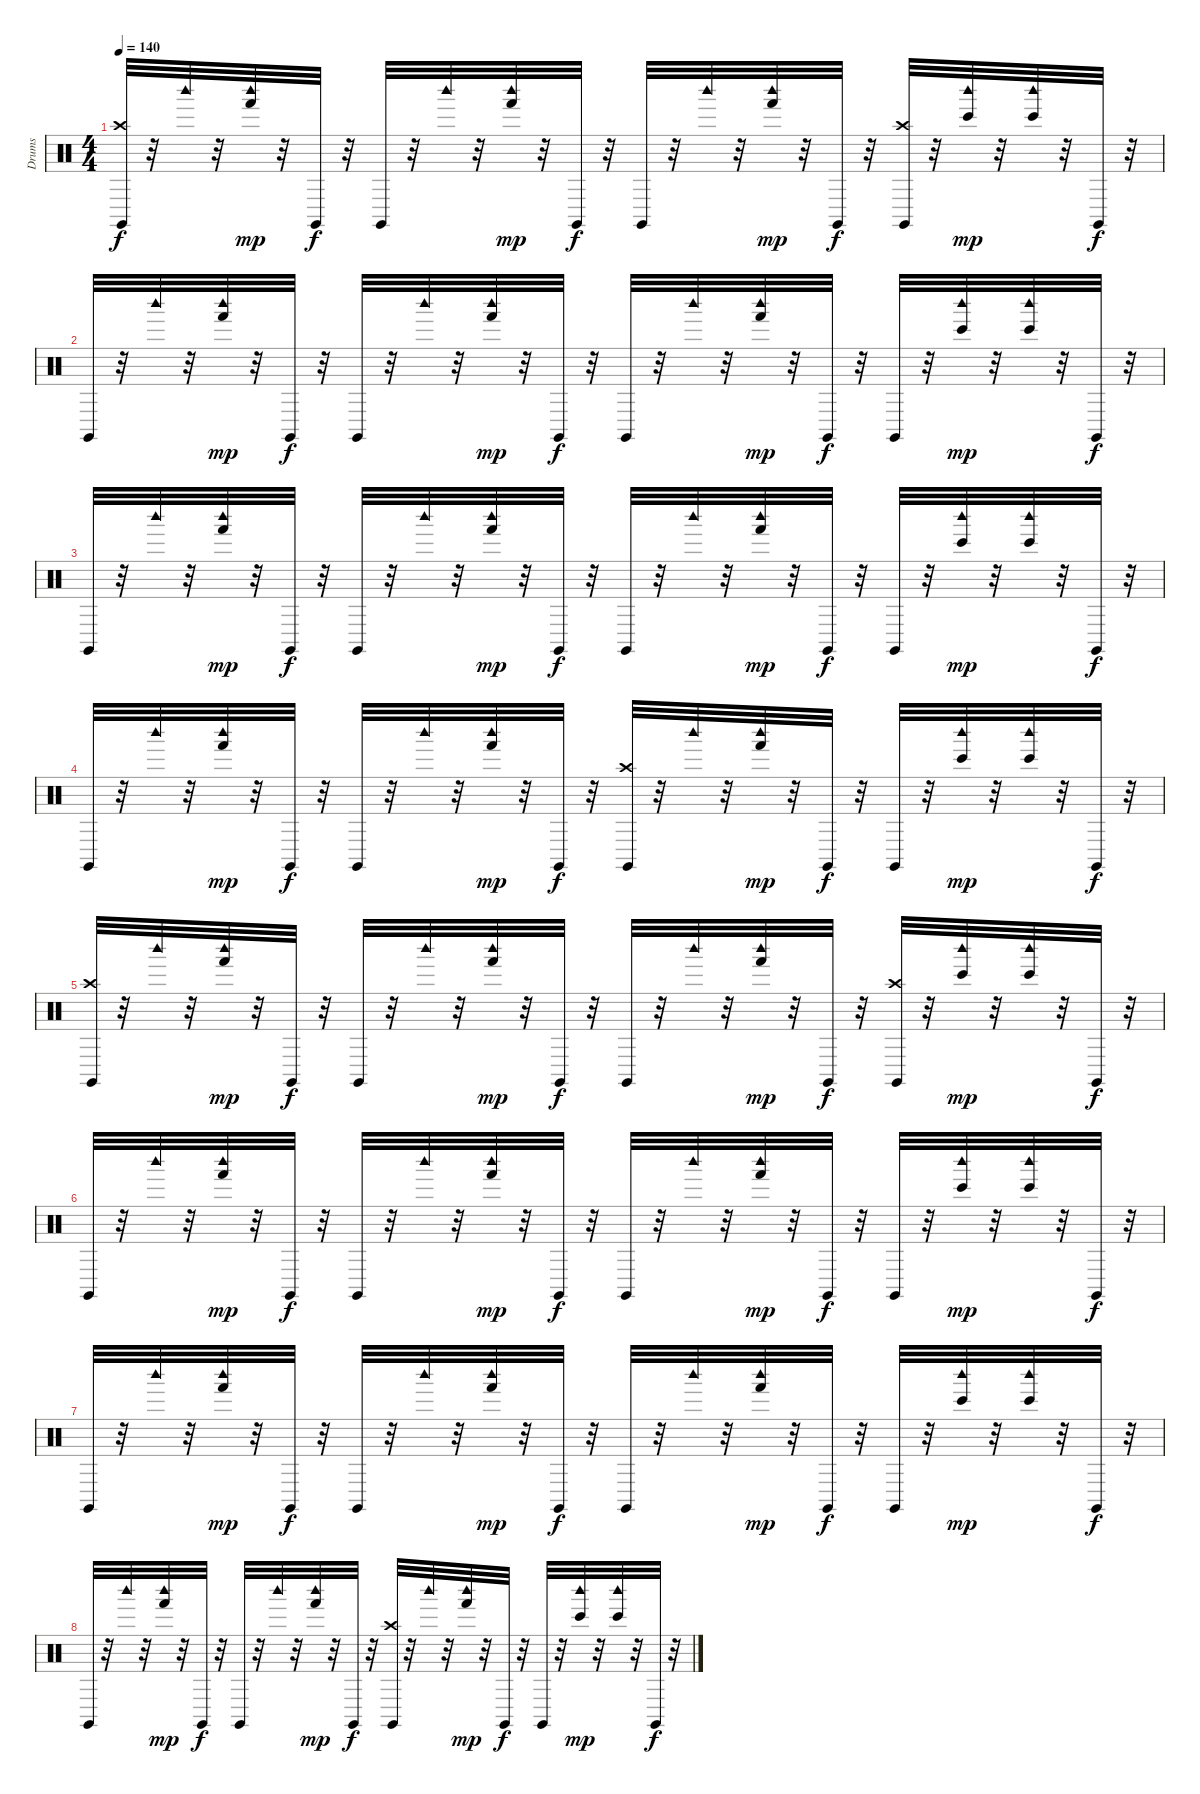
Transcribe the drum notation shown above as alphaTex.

\track ("Drums" "Drums") {instrument percussion}
\staff {score}
\articulation defaults
\ts (4 4)
\tempo 140
\clef neutral
\ks c
("Crash high (hit)" "Claves (hit)").32{dy f} r.32 "Woodblock high (hit)".32 r.32 ("Hand (hit)" "Woodblock high (hit)").32{dy mp} r.32 "Claves (hit)".32{dy f} r.32 "Claves (hit)".32 r.32 "Woodblock high (hit)".32 r.32 ("Hand (hit)" "Woodblock high (hit)").32{dy mp} r.32 "Claves (hit)".32{dy f} r.32 "Claves (hit)".32 r.32 "Woodblock high (hit)".32 r.32 ("Hand (hit)" "Woodblock high (hit)").32{dy mp} r.32 "Claves (hit)".32{dy f} r.32 ("Crash high (hit)" "Claves (hit)").32 r.32 ("Woodblock high (hit)" "Bongo High (hit)").32{dy mp} r.32 ("Bongo High (hit)" "Woodblock high (hit)").32 r.32 "Claves (hit)".32{dy f} r.32 |
"Claves (hit)".32 r.32 "Woodblock high (hit)".32 r.32 ("Hand (hit)" "Woodblock high (hit)").32{dy mp} r.32 "Claves (hit)".32{dy f} r.32 "Claves (hit)".32 r.32 "Woodblock high (hit)".32 r.32 ("Hand (hit)" "Woodblock high (hit)").32{dy mp} r.32 "Claves (hit)".32{dy f} r.32 "Claves (hit)".32 r.32 "Woodblock high (hit)".32 r.32 ("Woodblock high (hit)" "Hand (hit)").32{dy mp} r.32 "Claves (hit)".32{dy f} r.32 "Claves (hit)".32 r.32 ("Woodblock high (hit)" "Bongo High (hit)").32{dy mp} r.32 ("Woodblock high (hit)" "Bongo High (hit)").32 r.32 "Claves (hit)".32{dy f} r.32 |
"Claves (hit)".32 r.32 "Woodblock high (hit)".32 r.32 ("Hand (hit)" "Woodblock high (hit)").32{dy mp} r.32 "Claves (hit)".32{dy f} r.32 "Claves (hit)".32 r.32 "Woodblock high (hit)".32 r.32 ("Hand (hit)" "Woodblock high (hit)").32{dy mp} r.32 "Claves (hit)".32{dy f} r.32 "Claves (hit)".32 r.32 "Woodblock high (hit)".32 r.32 ("Hand (hit)" "Woodblock high (hit)").32{dy mp} r.32 "Claves (hit)".32{dy f} r.32 "Claves (hit)".32 r.32 ("Woodblock high (hit)" "Bongo High (hit)").32{dy mp} r.32 ("Bongo High (hit)" "Woodblock high (hit)").32 r.32 "Claves (hit)".32{dy f} r.32 |
"Claves (hit)".32 r.32 "Woodblock high (hit)".32 r.32 ("Hand (hit)" "Woodblock high (hit)").32{dy mp} r.32 "Claves (hit)".32{dy f} r.32 "Claves (hit)".32 r.32 "Woodblock high (hit)".32 r.32 ("Hand (hit)" "Woodblock high (hit)").32{dy mp} r.32 "Claves (hit)".32{dy f} r.32 ("Crash high (hit)" "Claves (hit)").32 r.32 "Woodblock high (hit)".32 r.32 ("Woodblock high (hit)" "Hand (hit)").32{dy mp} r.32 "Claves (hit)".32{dy f} r.32 "Claves (hit)".32 r.32 ("Woodblock high (hit)" "Bongo High (hit)").32{dy mp} r.32 ("Woodblock high (hit)" "Bongo High (hit)").32 r.32 "Claves (hit)".32{dy f} r.32 |
("Crash high (hit)" "Claves (hit)").32 r.32 "Woodblock high (hit)".32 r.32 ("Hand (hit)" "Woodblock high (hit)").32{dy mp} r.32 "Claves (hit)".32{dy f} r.32 "Claves (hit)".32 r.32 "Woodblock high (hit)".32 r.32 ("Hand (hit)" "Woodblock high (hit)").32{dy mp} r.32 "Claves (hit)".32{dy f} r.32 "Claves (hit)".32 r.32 "Woodblock high (hit)".32 r.32 ("Hand (hit)" "Woodblock high (hit)").32{dy mp} r.32 "Claves (hit)".32{dy f} r.32 ("Crash high (hit)" "Claves (hit)").32 r.32 ("Woodblock high (hit)" "Bongo High (hit)").32{dy mp} r.32 ("Bongo High (hit)" "Woodblock high (hit)").32 r.32 "Claves (hit)".32{dy f} r.32 |
"Claves (hit)".32 r.32 "Woodblock high (hit)".32 r.32 ("Hand (hit)" "Woodblock high (hit)").32{dy mp} r.32 "Claves (hit)".32{dy f} r.32 "Claves (hit)".32 r.32 "Woodblock high (hit)".32 r.32 ("Hand (hit)" "Woodblock high (hit)").32{dy mp} r.32 "Claves (hit)".32{dy f} r.32 "Claves (hit)".32 r.32 "Woodblock high (hit)".32 r.32 ("Woodblock high (hit)" "Hand (hit)").32{dy mp} r.32 "Claves (hit)".32{dy f} r.32 "Claves (hit)".32 r.32 ("Woodblock high (hit)" "Bongo High (hit)").32{dy mp} r.32 ("Woodblock high (hit)" "Bongo High (hit)").32 r.32 "Claves (hit)".32{dy f} r.32 |
"Claves (hit)".32 r.32 "Woodblock high (hit)".32 r.32 ("Hand (hit)" "Woodblock high (hit)").32{dy mp} r.32 "Claves (hit)".32{dy f} r.32 "Claves (hit)".32 r.32 "Woodblock high (hit)".32 r.32 ("Hand (hit)" "Woodblock high (hit)").32{dy mp} r.32 "Claves (hit)".32{dy f} r.32 "Claves (hit)".32 r.32 "Woodblock high (hit)".32 r.32 ("Hand (hit)" "Woodblock high (hit)").32{dy mp} r.32 "Claves (hit)".32{dy f} r.32 "Claves (hit)".32 r.32 ("Woodblock high (hit)" "Bongo High (hit)").32{dy mp} r.32 ("Bongo High (hit)" "Woodblock high (hit)").32 r.32 "Claves (hit)".32{dy f} r.32 |
"Claves (hit)".32 r.32 "Woodblock high (hit)".32 r.32 ("Hand (hit)" "Woodblock high (hit)").32{dy mp} r.32 "Claves (hit)".32{dy f} r.32 "Claves (hit)".32 r.32 "Woodblock high (hit)".32 r.32 ("Hand (hit)" "Woodblock high (hit)").32{dy mp} r.32 "Claves (hit)".32{dy f} r.32 ("Crash high (hit)" "Claves (hit)").32 r.32 "Woodblock high (hit)".32 r.32 ("Woodblock high (hit)" "Hand (hit)").32{dy mp} r.32 "Claves (hit)".32{dy f} r.32 "Claves (hit)".32 r.32 ("Woodblock high (hit)" "Bongo High (hit)").32{dy mp} r.32 ("Woodblock high (hit)" "Bongo High (hit)").32 r.32 "Claves (hit)".32{dy f} r.32
